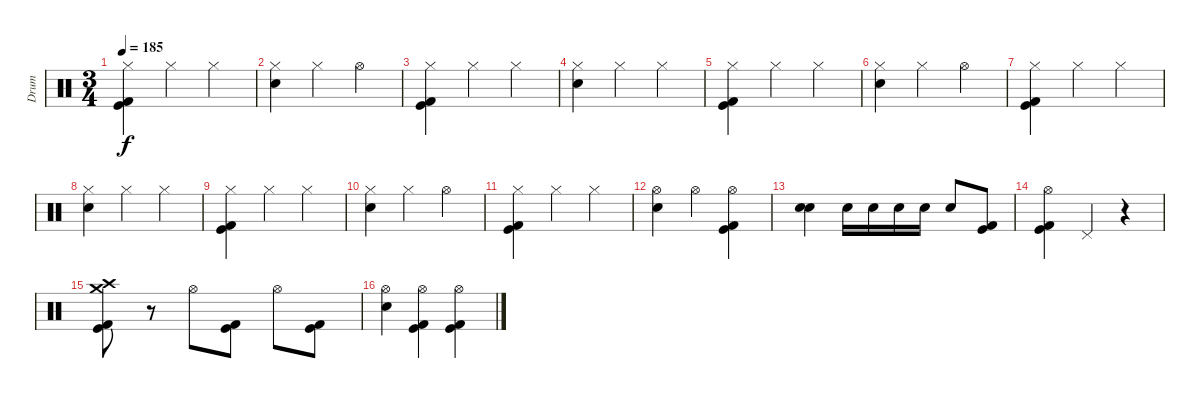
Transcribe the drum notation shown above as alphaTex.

\track ("Drum" "Drum") {instrument percussion}
\staff {score}
\articulation defaults
\ts (3 4)
\tempo 185
\clef neutral
\ks c
("Hi-Hat (closed)" "Kick (hit)" "Kick (hit) 2").4{dy f} "Hi-Hat (closed)".4 "Hi-Hat (closed)".4 |
("Hi-Hat (closed)" "Electric Snare (hit)").4 "Hi-Hat (closed)".4 "Hi-Hat (open)".4 |
("Hi-Hat (closed)" "Kick (hit)" "Kick (hit) 2").4 "Hi-Hat (closed)".4 "Hi-Hat (closed)".4 |
("Hi-Hat (closed)" "Electric Snare (hit)").4 "Hi-Hat (closed)".4 "Hi-Hat (closed)".4 |
("Hi-Hat (closed)" "Kick (hit)" "Kick (hit) 2").4 "Hi-Hat (closed)".4 "Hi-Hat (closed)".4 |
("Hi-Hat (closed)" "Electric Snare (hit)").4 "Hi-Hat (closed)".4 "Hi-Hat (open)".4 |
("Hi-Hat (closed)" "Kick (hit)" "Kick (hit) 2").4 "Hi-Hat (closed)".4 "Hi-Hat (closed)".4 |
("Hi-Hat (closed)" "Electric Snare (hit)").4 "Hi-Hat (closed)".4 "Hi-Hat (closed)".4 |
("Hi-Hat (closed)" "Kick (hit)" "Kick (hit) 2").4 "Hi-Hat (closed)".4 "Hi-Hat (closed)".4 |
("Hi-Hat (closed)" "Electric Snare (hit)").4 "Hi-Hat (closed)".4 "Hi-Hat (open)".4 |
("Hi-Hat (closed)" "Kick (hit)" "Kick (hit) 2").4 "Hi-Hat (closed)".4 "Hi-Hat (closed)".4 |
("Hi-Hat (open)" "Electric Snare (hit)").4 "Hi-Hat (open)".4 ("Hi-Hat (open)" "Kick (hit)" "Kick (hit) 2").4 |
("Electric Snare (hit)" "Electric Snare (hit)").4{bu 240} "Electric Snare (hit)".16 "Electric Snare (hit)".16 "Electric Snare (hit)".16 "Electric Snare (hit)".16 "Electric Snare (hit)".8 ("Kick (hit)" "Kick (hit) 2").8 |
("Hi-Hat (open)" "Kick (hit)" "Kick (hit) 2").4 "Pedal Hi-Hat (hit)".4 r.4 |
("Crash medium (hit)" "Crash high (hit)" "Kick (hit)" "Kick (hit) 2").8 r.8 "Hi-Hat (open)".8 ("Kick (hit)" "Kick (hit) 2").8 "Hi-Hat (open)".8 ("Kick (hit)" "Kick (hit) 2").8 |
("Hi-Hat (open)" "Electric Snare (hit)").4 ("Hi-Hat (open)" "Kick (hit)" "Kick (hit) 2").4 ("Hi-Hat (open)" "Kick (hit)" "Kick (hit) 2").4
